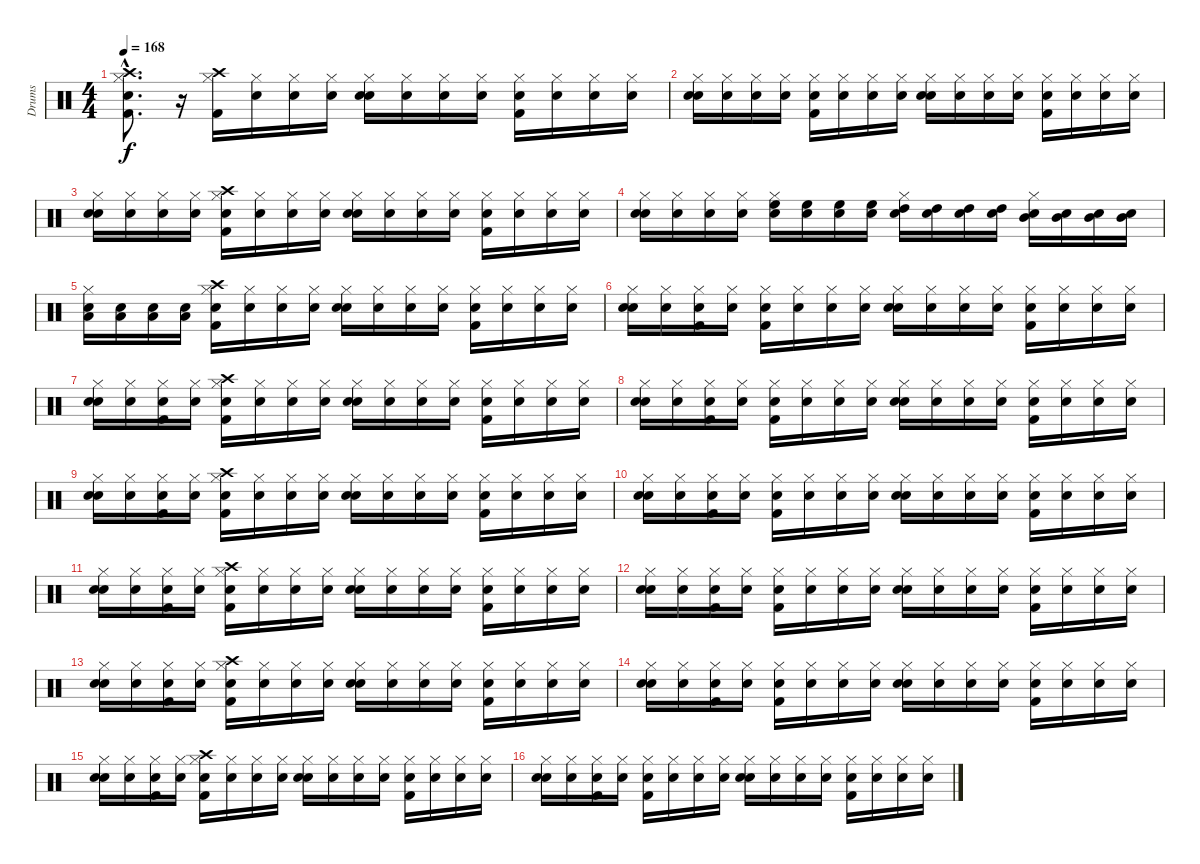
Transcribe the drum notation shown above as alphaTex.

\track ("Drums" "Drums") {instrument percussion}
\staff {score}
\articulation defaults
\ts (4 4)
\tempo 168
\clef neutral
\ks c
("Snare (hit)"{hac} "Kick (hit) 2"{hac} "Hi-Hat (closed)"{hac} "Crash high (hit)"{hac}).8{d dy f} r.16 ("Kick (hit) 2" "Hi-Hat (closed)" "Crash high (hit)").16 ("Snare (hit)" "Hi-Hat (closed)").16 ("Snare (hit)" "Hi-Hat (closed)").16 ("Snare (hit)" "Hi-Hat (closed)").16 ("Snare (hit)" "Snare (hit) 2" "Hi-Hat (closed)").16 ("Snare (hit)" "Hi-Hat (closed)").16 ("Snare (hit)" "Hi-Hat (closed)").16 ("Snare (hit)" "Hi-Hat (closed)").16 ("Snare (hit)" "Kick (hit) 2" "Hi-Hat (closed)").16 ("Snare (hit)" "Hi-Hat (closed)").16 ("Snare (hit)" "Hi-Hat (closed)").16 ("Snare (hit)" "Hi-Hat (closed)").16 |
("Snare (hit)" "Snare (hit) 2" "Hi-Hat (closed)").16 ("Snare (hit)" "Hi-Hat (closed)").16 ("Snare (hit)" "Hi-Hat (closed)").16 ("Snare (hit)" "Hi-Hat (closed)").16 ("Snare (hit)" "Kick (hit) 2" "Hi-Hat (closed)").16 ("Snare (hit)" "Hi-Hat (closed)").16 ("Snare (hit)" "Hi-Hat (closed)").16 ("Snare (hit)" "Hi-Hat (closed)").16 ("Snare (hit)" "Snare (hit) 2" "Hi-Hat (closed)").16 ("Snare (hit)" "Hi-Hat (closed)").16 ("Snare (hit)" "Hi-Hat (closed)").16 ("Snare (hit)" "Hi-Hat (closed)").16 ("Snare (hit)" "Kick (hit) 2" "Hi-Hat (closed)").16 ("Snare (hit)" "Hi-Hat (closed)").16 ("Snare (hit)" "Hi-Hat (closed)").16 ("Snare (hit)" "Hi-Hat (closed)").16 |
("Snare (hit)" "Snare (hit) 2" "Hi-Hat (closed)").16 ("Snare (hit)" "Hi-Hat (closed)").16 ("Snare (hit)" "Hi-Hat (closed)").16 ("Snare (hit)" "Hi-Hat (closed)").16 ("Snare (hit)" "Kick (hit) 2" "Hi-Hat (closed)" "Crash high (hit)").16 ("Snare (hit)" "Hi-Hat (closed)").16 ("Snare (hit)" "Hi-Hat (closed)").16 ("Snare (hit)" "Hi-Hat (closed)").16 ("Snare (hit)" "Snare (hit) 2" "Hi-Hat (closed)").16 ("Snare (hit)" "Hi-Hat (closed)").16 ("Snare (hit)" "Hi-Hat (closed)").16 ("Snare (hit)" "Hi-Hat (closed)").16 ("Snare (hit)" "Kick (hit) 2" "Hi-Hat (closed)").16 ("Snare (hit)" "Hi-Hat (closed)").16 ("Snare (hit)" "Hi-Hat (closed)").16 ("Snare (hit)" "Hi-Hat (closed)").16 |
("Snare (hit)" "Snare (hit) 2" "Hi-Hat (closed)").16 ("Snare (hit)" "Hi-Hat (closed)").16 ("Snare (hit)" "Hi-Hat (closed)").16 ("Snare (hit)" "Hi-Hat (closed)").16 ("Snare (hit)" "Hi-Hat (closed)" "High Floor Tom (hit)").16 ("Snare (hit)" "High Floor Tom (hit)").16 ("Snare (hit)" "High Floor Tom (hit)").16 ("Snare (hit)" "High Floor Tom (hit)").16 ("Snare (hit)" "Hi-Hat (closed)" "High Tom (hit)").16 ("Snare (hit)" "High Tom (hit)").16 ("Snare (hit)" "High Tom (hit)").16 ("Snare (hit)" "High Tom (hit)").16 ("Snare (hit)" "Hi-Hat (closed)" "Mid Tom (hit)").16 ("Snare (hit)" "Mid Tom (hit)").16 ("Snare (hit)" "Mid Tom (hit)").16 ("Snare (hit)" "Mid Tom (hit)").16 |
("Snare (hit)" "Hi-Hat (closed)" "Low Tom (hit)").16 ("Snare (hit)" "Low Tom (hit)").16 ("Snare (hit)" "Low Tom (hit)").16 ("Snare (hit)" "Low Tom (hit)").16 ("Snare (hit)" "Kick (hit) 2" "Hi-Hat (closed)" "Crash high (hit)").16 ("Snare (hit)" "Hi-Hat (closed)").16 ("Snare (hit)" "Hi-Hat (closed)").16 ("Snare (hit)" "Hi-Hat (closed)").16 ("Snare (hit)" "Snare (hit) 2" "Hi-Hat (closed)").16 ("Snare (hit)" "Hi-Hat (closed)").16 ("Snare (hit)" "Hi-Hat (closed)").16 ("Snare (hit)" "Hi-Hat (closed)").16 ("Snare (hit)" "Kick (hit) 2" "Hi-Hat (closed)").16 ("Snare (hit)" "Hi-Hat (closed)").16 ("Snare (hit)" "Hi-Hat (closed)").16 ("Snare (hit)" "Hi-Hat (closed)").16 |
("Snare (hit)" "Snare (hit) 2" "Hi-Hat (closed)").16 ("Snare (hit)" "Hi-Hat (closed)").16 ("Snare (hit)" "Kick (hit) 2" "Hi-Hat (closed)").16 ("Snare (hit)" "Hi-Hat (closed)").16 ("Snare (hit)" "Kick (hit) 2" "Hi-Hat (closed)").16 ("Snare (hit)" "Hi-Hat (closed)").16 ("Snare (hit)" "Hi-Hat (closed)").16 ("Snare (hit)" "Hi-Hat (closed)").16 ("Snare (hit)" "Snare (hit) 2" "Hi-Hat (closed)").16 ("Snare (hit)" "Hi-Hat (closed)").16 ("Snare (hit)" "Hi-Hat (closed)").16 ("Snare (hit)" "Hi-Hat (closed)").16 ("Snare (hit)" "Kick (hit) 2" "Hi-Hat (closed)").16 ("Snare (hit)" "Hi-Hat (closed)").16 ("Snare (hit)" "Hi-Hat (closed)").16 ("Snare (hit)" "Hi-Hat (closed)").16 |
("Snare (hit)" "Snare (hit) 2" "Hi-Hat (closed)").16 ("Snare (hit)" "Hi-Hat (closed)").16 ("Snare (hit)" "Kick (hit) 2" "Hi-Hat (closed)").16 ("Snare (hit)" "Hi-Hat (closed)").16 ("Snare (hit)" "Kick (hit) 2" "Hi-Hat (closed)" "Crash high (hit)").16 ("Snare (hit)" "Hi-Hat (closed)").16 ("Snare (hit)" "Hi-Hat (closed)").16 ("Snare (hit)" "Hi-Hat (closed)").16 ("Snare (hit)" "Snare (hit) 2" "Hi-Hat (closed)").16 ("Snare (hit)" "Hi-Hat (closed)").16 ("Snare (hit)" "Hi-Hat (closed)").16 ("Snare (hit)" "Hi-Hat (closed)").16 ("Snare (hit)" "Kick (hit) 2" "Hi-Hat (closed)").16 ("Snare (hit)" "Hi-Hat (closed)").16 ("Snare (hit)" "Hi-Hat (closed)").16 ("Snare (hit)" "Hi-Hat (closed)").16 |
("Snare (hit)" "Snare (hit) 2" "Hi-Hat (closed)").16 ("Snare (hit)" "Hi-Hat (closed)").16 ("Snare (hit)" "Kick (hit) 2" "Hi-Hat (closed)").16 ("Snare (hit)" "Hi-Hat (closed)").16 ("Snare (hit)" "Kick (hit) 2" "Hi-Hat (closed)").16 ("Snare (hit)" "Hi-Hat (closed)").16 ("Snare (hit)" "Hi-Hat (closed)").16 ("Snare (hit)" "Hi-Hat (closed)").16 ("Snare (hit)" "Snare (hit) 2" "Hi-Hat (closed)").16 ("Snare (hit)" "Hi-Hat (closed)").16 ("Snare (hit)" "Hi-Hat (closed)").16 ("Snare (hit)" "Hi-Hat (closed)").16 ("Snare (hit)" "Kick (hit) 2" "Hi-Hat (closed)").16 ("Snare (hit)" "Hi-Hat (closed)").16 ("Snare (hit)" "Hi-Hat (closed)").16 ("Snare (hit)" "Hi-Hat (closed)").16 |
("Snare (hit)" "Snare (hit) 2" "Hi-Hat (closed)").16 ("Snare (hit)" "Hi-Hat (closed)").16 ("Snare (hit)" "Kick (hit) 2" "Hi-Hat (closed)").16 ("Snare (hit)" "Hi-Hat (closed)").16 ("Snare (hit)" "Kick (hit) 2" "Hi-Hat (closed)" "Crash high (hit)").16 ("Snare (hit)" "Hi-Hat (closed)").16 ("Snare (hit)" "Hi-Hat (closed)").16 ("Snare (hit)" "Hi-Hat (closed)").16 ("Snare (hit)" "Snare (hit) 2" "Hi-Hat (closed)").16 ("Snare (hit)" "Hi-Hat (closed)").16 ("Snare (hit)" "Hi-Hat (closed)").16 ("Snare (hit)" "Hi-Hat (closed)").16 ("Snare (hit)" "Kick (hit) 2" "Hi-Hat (closed)").16 ("Snare (hit)" "Hi-Hat (closed)").16 ("Snare (hit)" "Hi-Hat (closed)").16 ("Snare (hit)" "Hi-Hat (closed)").16 |
("Snare (hit)" "Snare (hit) 2" "Hi-Hat (closed)").16 ("Snare (hit)" "Hi-Hat (closed)").16 ("Snare (hit)" "Kick (hit) 2" "Hi-Hat (closed)").16 ("Snare (hit)" "Hi-Hat (closed)").16 ("Snare (hit)" "Kick (hit) 2" "Hi-Hat (closed)").16 ("Snare (hit)" "Hi-Hat (closed)").16 ("Snare (hit)" "Hi-Hat (closed)").16 ("Snare (hit)" "Hi-Hat (closed)").16 ("Snare (hit)" "Snare (hit) 2" "Hi-Hat (closed)").16 ("Snare (hit)" "Hi-Hat (closed)").16 ("Snare (hit)" "Hi-Hat (closed)").16 ("Snare (hit)" "Hi-Hat (closed)").16 ("Snare (hit)" "Kick (hit) 2" "Hi-Hat (closed)").16 ("Snare (hit)" "Hi-Hat (closed)").16 ("Snare (hit)" "Hi-Hat (closed)").16 ("Snare (hit)" "Hi-Hat (closed)").16 |
("Snare (hit)" "Snare (hit) 2" "Hi-Hat (closed)").16 ("Snare (hit)" "Hi-Hat (closed)").16 ("Snare (hit)" "Kick (hit) 2" "Hi-Hat (closed)").16 ("Snare (hit)" "Hi-Hat (closed)").16 ("Snare (hit)" "Kick (hit) 2" "Hi-Hat (closed)" "Crash high (hit)").16 ("Snare (hit)" "Hi-Hat (closed)").16 ("Snare (hit)" "Hi-Hat (closed)").16 ("Snare (hit)" "Hi-Hat (closed)").16 ("Snare (hit)" "Snare (hit) 2" "Hi-Hat (closed)").16 ("Snare (hit)" "Hi-Hat (closed)").16 ("Snare (hit)" "Hi-Hat (closed)").16 ("Snare (hit)" "Hi-Hat (closed)").16 ("Snare (hit)" "Kick (hit) 2" "Hi-Hat (closed)").16 ("Snare (hit)" "Hi-Hat (closed)").16 ("Snare (hit)" "Hi-Hat (closed)").16 ("Snare (hit)" "Hi-Hat (closed)").16 |
("Snare (hit)" "Snare (hit) 2" "Hi-Hat (closed)").16 ("Snare (hit)" "Hi-Hat (closed)").16 ("Snare (hit)" "Kick (hit) 2" "Hi-Hat (closed)").16 ("Snare (hit)" "Hi-Hat (closed)").16 ("Snare (hit)" "Kick (hit) 2" "Hi-Hat (closed)").16 ("Snare (hit)" "Hi-Hat (closed)").16 ("Snare (hit)" "Hi-Hat (closed)").16 ("Snare (hit)" "Hi-Hat (closed)").16 ("Snare (hit)" "Snare (hit) 2" "Hi-Hat (closed)").16 ("Snare (hit)" "Hi-Hat (closed)").16 ("Snare (hit)" "Hi-Hat (closed)").16 ("Snare (hit)" "Hi-Hat (closed)").16 ("Snare (hit)" "Kick (hit) 2" "Hi-Hat (closed)").16 ("Snare (hit)" "Hi-Hat (closed)").16 ("Snare (hit)" "Hi-Hat (closed)").16 ("Snare (hit)" "Hi-Hat (closed)").16 |
("Snare (hit)" "Snare (hit) 2" "Hi-Hat (closed)").16 ("Snare (hit)" "Hi-Hat (closed)").16 ("Snare (hit)" "Kick (hit) 2" "Hi-Hat (closed)").16 ("Snare (hit)" "Hi-Hat (closed)").16 ("Snare (hit)" "Kick (hit) 2" "Hi-Hat (closed)" "Crash high (hit)").16 ("Snare (hit)" "Hi-Hat (closed)").16 ("Snare (hit)" "Hi-Hat (closed)").16 ("Snare (hit)" "Hi-Hat (closed)").16 ("Snare (hit)" "Snare (hit) 2" "Hi-Hat (closed)").16 ("Snare (hit)" "Hi-Hat (closed)").16 ("Snare (hit)" "Hi-Hat (closed)").16 ("Snare (hit)" "Hi-Hat (closed)").16 ("Snare (hit)" "Kick (hit) 2" "Hi-Hat (closed)").16 ("Snare (hit)" "Hi-Hat (closed)").16 ("Snare (hit)" "Hi-Hat (closed)").16 ("Snare (hit)" "Hi-Hat (closed)").16 |
("Snare (hit)" "Snare (hit) 2" "Hi-Hat (closed)").16 ("Snare (hit)" "Hi-Hat (closed)").16 ("Snare (hit)" "Kick (hit) 2" "Hi-Hat (closed)").16 ("Snare (hit)" "Hi-Hat (closed)").16 ("Snare (hit)" "Kick (hit) 2" "Hi-Hat (closed)").16 ("Snare (hit)" "Hi-Hat (closed)").16 ("Snare (hit)" "Hi-Hat (closed)").16 ("Snare (hit)" "Hi-Hat (closed)").16 ("Snare (hit)" "Snare (hit) 2" "Hi-Hat (closed)").16 ("Snare (hit)" "Hi-Hat (closed)").16 ("Snare (hit)" "Hi-Hat (closed)").16 ("Snare (hit)" "Hi-Hat (closed)").16 ("Snare (hit)" "Kick (hit) 2" "Hi-Hat (closed)").16 ("Snare (hit)" "Hi-Hat (closed)").16 ("Snare (hit)" "Hi-Hat (closed)").16 ("Snare (hit)" "Hi-Hat (closed)").16 |
("Snare (hit)" "Snare (hit) 2" "Hi-Hat (closed)").16 ("Snare (hit)" "Hi-Hat (closed)").16 ("Snare (hit)" "Kick (hit) 2" "Hi-Hat (closed)").16 ("Snare (hit)" "Hi-Hat (closed)").16 ("Snare (hit)" "Kick (hit) 2" "Hi-Hat (closed)" "Crash high (hit)").16 ("Snare (hit)" "Hi-Hat (closed)").16 ("Snare (hit)" "Hi-Hat (closed)").16 ("Snare (hit)" "Hi-Hat (closed)").16 ("Snare (hit)" "Snare (hit) 2" "Hi-Hat (closed)").16 ("Snare (hit)" "Hi-Hat (closed)").16 ("Snare (hit)" "Hi-Hat (closed)").16 ("Snare (hit)" "Hi-Hat (closed)").16 ("Snare (hit)" "Kick (hit) 2" "Hi-Hat (closed)").16 ("Snare (hit)" "Hi-Hat (closed)").16 ("Snare (hit)" "Hi-Hat (closed)").16 ("Snare (hit)" "Hi-Hat (closed)").16 |
("Snare (hit)" "Snare (hit) 2" "Hi-Hat (closed)").16 ("Snare (hit)" "Hi-Hat (closed)").16 ("Snare (hit)" "Kick (hit) 2" "Hi-Hat (closed)").16 ("Snare (hit)" "Hi-Hat (closed)").16 ("Snare (hit)" "Kick (hit) 2" "Hi-Hat (closed)").16 ("Snare (hit)" "Hi-Hat (closed)").16 ("Snare (hit)" "Hi-Hat (closed)").16 ("Snare (hit)" "Hi-Hat (closed)").16 ("Snare (hit)" "Snare (hit) 2" "Hi-Hat (closed)").16 ("Snare (hit)" "Hi-Hat (closed)").16 ("Snare (hit)" "Hi-Hat (closed)").16 ("Snare (hit)" "Hi-Hat (closed)").16 ("Snare (hit)" "Kick (hit) 2" "Hi-Hat (closed)").16 ("Snare (hit)" "Hi-Hat (closed)").16 ("Snare (hit)" "Hi-Hat (closed)").16 ("Snare (hit)" "Hi-Hat (closed)").16
